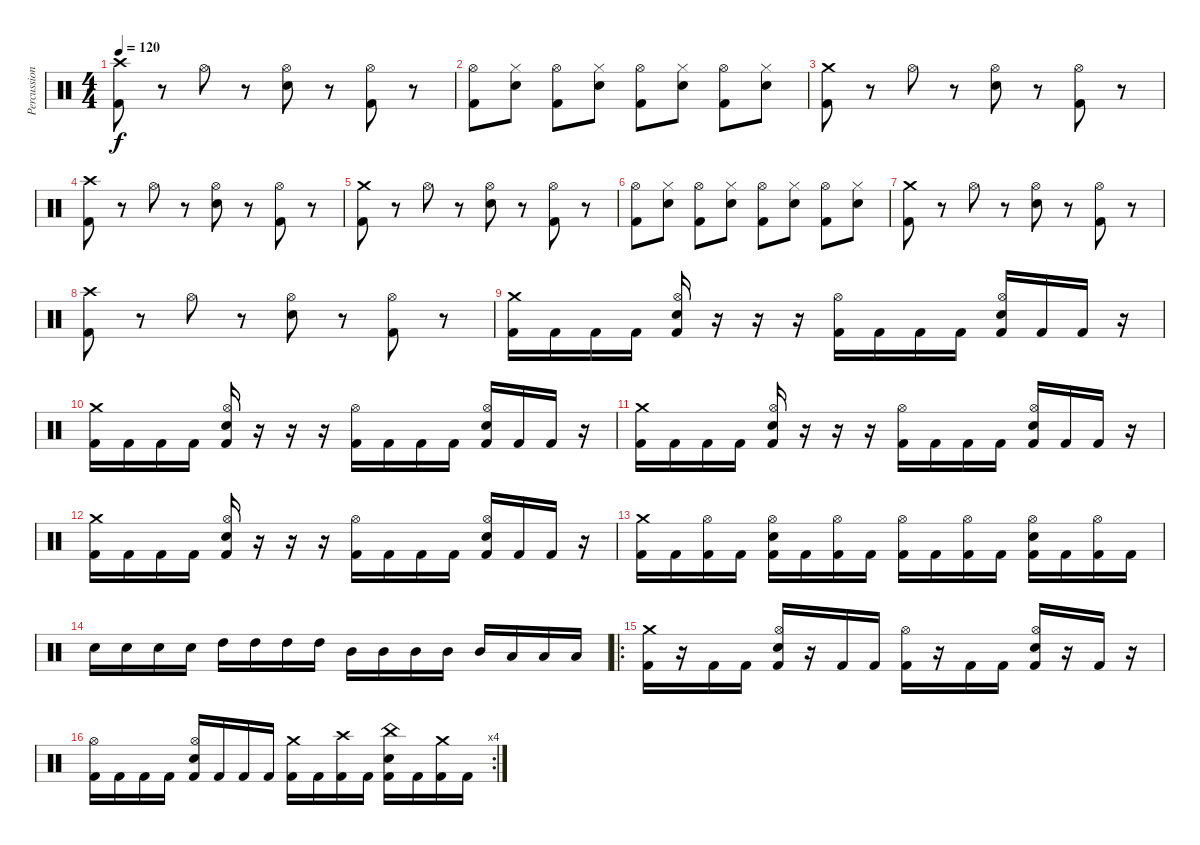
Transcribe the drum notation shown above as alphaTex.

\track ("Percussion" "Percussion") {instrument percussion}
\staff {score}
\articulation defaults
\ts (4 4)
\tempo 120
\clef neutral
\ks c
("Crash high (hit)" "Kick (hit) 2").8{dy f} r.8 "Hi-Hat (open)".8 r.8 ("Hi-Hat (open)" "Electric Snare (hit)").8 r.8 ("Hi-Hat (open)" "Kick (hit) 2").8 r.8 |
("Hi-Hat (open)" "Kick (hit) 2").8 ("Hi-Hat (closed)" "Electric Snare (hit)").8 ("Hi-Hat (open)" "Kick (hit) 2").8 ("Hi-Hat (closed)" "Electric Snare (hit)").8 ("Hi-Hat (open)" "Kick (hit) 2").8 ("Hi-Hat (closed)" "Electric Snare (hit)").8 ("Hi-Hat (open)" "Kick (hit) 2").8 ("Hi-Hat (closed)" "Electric Snare (hit)").8 |
("Crash medium (hit)" "Kick (hit) 2").8 r.8 "Hi-Hat (open)".8 r.8 ("Hi-Hat (open)" "Electric Snare (hit)").8 r.8 ("Hi-Hat (open)" "Kick (hit) 2").8 r.8 |
("Crash high (hit)" "Kick (hit) 2").8 r.8 "Hi-Hat (open)".8 r.8 ("Hi-Hat (open)" "Electric Snare (hit)").8 r.8 ("Hi-Hat (open)" "Kick (hit) 2").8 r.8 |
("Crash medium (hit)" "Kick (hit) 2").8 r.8 "Hi-Hat (open)".8 r.8 ("Hi-Hat (open)" "Electric Snare (hit)").8 r.8 ("Hi-Hat (open)" "Kick (hit) 2").8 r.8 |
("Hi-Hat (open)" "Kick (hit) 2").8 ("Hi-Hat (closed)" "Electric Snare (hit)").8 ("Hi-Hat (open)" "Kick (hit) 2").8 ("Hi-Hat (closed)" "Electric Snare (hit)").8 ("Hi-Hat (open)" "Kick (hit) 2").8 ("Hi-Hat (closed)" "Electric Snare (hit)").8 ("Hi-Hat (open)" "Kick (hit) 2").8 ("Hi-Hat (closed)" "Electric Snare (hit)").8 |
("Crash medium (hit)" "Kick (hit) 2").8 r.8 "Hi-Hat (open)".8 r.8 ("Hi-Hat (open)" "Electric Snare (hit)").8 r.8 ("Hi-Hat (open)" "Kick (hit) 2").8 r.8 |
("Crash high (hit)" "Kick (hit) 2").8 r.8 "Hi-Hat (open)".8 r.8 ("Hi-Hat (open)" "Electric Snare (hit)").8 r.8 ("Hi-Hat (open)" "Kick (hit) 2").8 r.8 |
("Crash medium (hit)" "Kick (hit) 2").16 "Kick (hit) 2".16 "Kick (hit) 2".16 "Kick (hit) 2".16 ("Hi-Hat (open)" "Electric Snare (hit)" "Kick (hit) 2").16 r.16 r.16 r.16 ("Hi-Hat (open)" "Kick (hit) 2").16 "Kick (hit) 2".16 "Kick (hit) 2".16 "Kick (hit) 2".16 ("Hi-Hat (open)" "Electric Snare (hit)" "Kick (hit) 2").16 "Kick (hit) 2".16 "Kick (hit) 2".16 r.16 |
("Crash medium (hit)" "Kick (hit) 2").16 "Kick (hit) 2".16 "Kick (hit) 2".16 "Kick (hit) 2".16 ("Hi-Hat (open)" "Electric Snare (hit)" "Kick (hit) 2").16 r.16 r.16 r.16 ("Hi-Hat (open)" "Kick (hit) 2").16 "Kick (hit) 2".16 "Kick (hit) 2".16 "Kick (hit) 2".16 ("Hi-Hat (open)" "Electric Snare (hit)" "Kick (hit) 2").16 "Kick (hit) 2".16 "Kick (hit) 2".16 r.16 |
("Crash medium (hit)" "Kick (hit) 2").16 "Kick (hit) 2".16 "Kick (hit) 2".16 "Kick (hit) 2".16 ("Hi-Hat (open)" "Electric Snare (hit)" "Kick (hit) 2").16 r.16 r.16 r.16 ("Hi-Hat (open)" "Kick (hit) 2").16 "Kick (hit) 2".16 "Kick (hit) 2".16 "Kick (hit) 2".16 ("Hi-Hat (open)" "Electric Snare (hit)" "Kick (hit) 2").16 "Kick (hit) 2".16 "Kick (hit) 2".16 r.16 |
("Crash medium (hit)" "Kick (hit) 2").16 "Kick (hit) 2".16 "Kick (hit) 2".16 "Kick (hit) 2".16 ("Hi-Hat (open)" "Electric Snare (hit)" "Kick (hit) 2").16 r.16 r.16 r.16 ("Hi-Hat (open)" "Kick (hit) 2").16 "Kick (hit) 2".16 "Kick (hit) 2".16 "Kick (hit) 2".16 ("Hi-Hat (open)" "Electric Snare (hit)" "Kick (hit) 2").16 "Kick (hit) 2".16 "Kick (hit) 2".16 r.16 |
("Crash medium (hit)" "Kick (hit) 2").16 "Kick (hit) 2".16 ("Hi-Hat (open)" "Kick (hit) 2").16 "Kick (hit) 2".16 ("Hi-Hat (open)" "Electric Snare (hit)" "Kick (hit) 2").16 "Kick (hit) 2".16 ("Hi-Hat (open)" "Kick (hit) 2").16 "Kick (hit) 2".16 ("Hi-Hat (open)" "Kick (hit) 2").16 "Kick (hit) 2".16 ("Hi-Hat (open)" "Kick (hit) 2").16 "Kick (hit) 2".16 ("Hi-Hat (open)" "Electric Snare (hit)" "Kick (hit) 2").16 "Kick (hit) 2".16 ("Hi-Hat (open)" "Kick (hit) 2").16 "Kick (hit) 2".16 |
"Electric Snare (hit)".16 "Electric Snare (hit)".16 "Electric Snare (hit)".16 "Electric Snare (hit)".16 "High Tom (hit)".16 "High Tom (hit)".16 "High Tom (hit)".16 "High Tom (hit)".16 "Mid Tom (hit)".16 "Mid Tom (hit)".16 "Mid Tom (hit)".16 "Mid Tom (hit)".16 "Mid Tom (hit)".16 "Low Tom (hit)".16 "Low Tom (hit)".16 "Low Tom (hit)".16 |
\ro
("Crash medium (hit)" "Kick (hit) 2").16 r.16 "Kick (hit) 2".16 "Kick (hit) 2".16 ("Hi-Hat (open)" "Electric Snare (hit)" "Kick (hit) 2").16 r.16 "Kick (hit) 2".16 "Kick (hit) 2".16 ("Hi-Hat (open)" "Kick (hit) 2").16 r.16 "Kick (hit) 2".16 "Kick (hit) 2".16 ("Hi-Hat (open)" "Electric Snare (hit)" "Kick (hit) 2").16 r.16 "Kick (hit) 2".16 r.16 |
\rc 4
("Hi-Hat (open)" "Kick (hit) 2").16 "Kick (hit) 2".16 "Kick (hit) 2".16 "Kick (hit) 2".16 ("Hi-Hat (open)" "Electric Snare (hit)" "Kick (hit) 2").16 "Kick (hit) 2".16 "Kick (hit) 2".16 "Kick (hit) 2".16 ("Crash medium (hit)" "Kick (hit) 2").16 "Kick (hit) 2".16 ("Crash high (hit)" "Kick (hit) 2").16 "Kick (hit) 2".16 ("China (hit)" "Electric Snare (hit)" "Kick (hit) 2").16 "Kick (hit) 2".16 ("Crash medium (hit)" "Kick (hit) 2").16 "Kick (hit) 2".16
